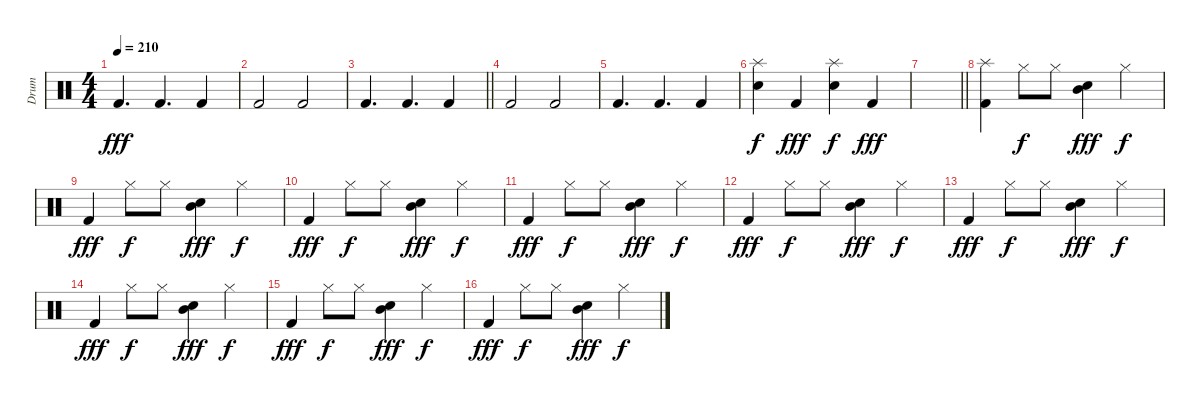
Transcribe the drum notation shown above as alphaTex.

\track ("Drum" "Drum") {instrument percussion}
\staff {score}
\articulation defaults
\ts (4 4)
\tempo 210
\clef neutral
\ks c "Kick (hit) 2".4{d dy fff} "Kick (hit) 2".4{d} "Kick (hit) 2".4
|
"Kick (hit) 2".2 "Kick (hit) 2".2 |
\barLineRight lightlight "Kick (hit) 2".4{d} "Kick (hit) 2".4{d} "Kick (hit) 2".4
|
"Kick (hit) 2".2 "Kick (hit) 2".2 |
"Kick (hit) 2".4{d} "Kick (hit) 2".4{d} "Kick (hit) 2".4 |
("Splash (hit)" "Electric Snare (hit)").4{dy f} "Kick (hit) 2".4{dy fff} ("Splash (hit)" "Electric Snare (hit)").4{dy f} "Kick (hit) 2".4{dy fff} |
\barLineRight lightlight
|
("Kick (hit) 2" "Splash (hit)").4 "Hi-Hat (closed)".8{dy f} "Hi-Hat (closed)".8 ("Snare (hit) 2" "Mid Tom (hit)").4{dy fff} "Hi-Hat (closed)".4{dy f} |
"Kick (hit) 2".4{dy fff} "Hi-Hat (closed)".8{dy f} "Hi-Hat (closed)".8 ("Snare (hit) 2" "Mid Tom (hit)").4{dy fff} "Hi-Hat (closed)".4{dy f} |
"Kick (hit) 2".4{dy fff} "Hi-Hat (closed)".8{dy f} "Hi-Hat (closed)".8 ("Snare (hit) 2" "Mid Tom (hit)").4{dy fff} "Hi-Hat (closed)".4{dy f} |
"Kick (hit) 2".4{dy fff} "Hi-Hat (closed)".8{dy f} "Hi-Hat (closed)".8 ("Snare (hit) 2" "Mid Tom (hit)").4{dy fff} "Hi-Hat (closed)".4{dy f} |
"Kick (hit) 2".4{dy fff} "Hi-Hat (closed)".8{dy f} "Hi-Hat (closed)".8 ("Snare (hit) 2" "Mid Tom (hit)").4{dy fff} "Hi-Hat (closed)".4{dy f} |
"Kick (hit) 2".4{dy fff} "Hi-Hat (closed)".8{dy f} "Hi-Hat (closed)".8 ("Snare (hit) 2" "Mid Tom (hit)").4{dy fff} "Hi-Hat (closed)".4{dy f} |
"Kick (hit) 2".4{dy fff} "Hi-Hat (closed)".8{dy f} "Hi-Hat (closed)".8 ("Snare (hit) 2" "Mid Tom (hit)").4{dy fff} "Hi-Hat (closed)".4{dy f} |
"Kick (hit) 2".4{dy fff} "Hi-Hat (closed)".8{dy f} "Hi-Hat (closed)".8 ("Snare (hit) 2" "Mid Tom (hit)").4{dy fff} "Hi-Hat (closed)".4{dy f} |
"Kick (hit) 2".4{dy fff} "Hi-Hat (closed)".8{dy f} "Hi-Hat (closed)".8 ("Snare (hit) 2" "Mid Tom (hit)").4{dy fff} "Hi-Hat (closed)".4{dy f}
